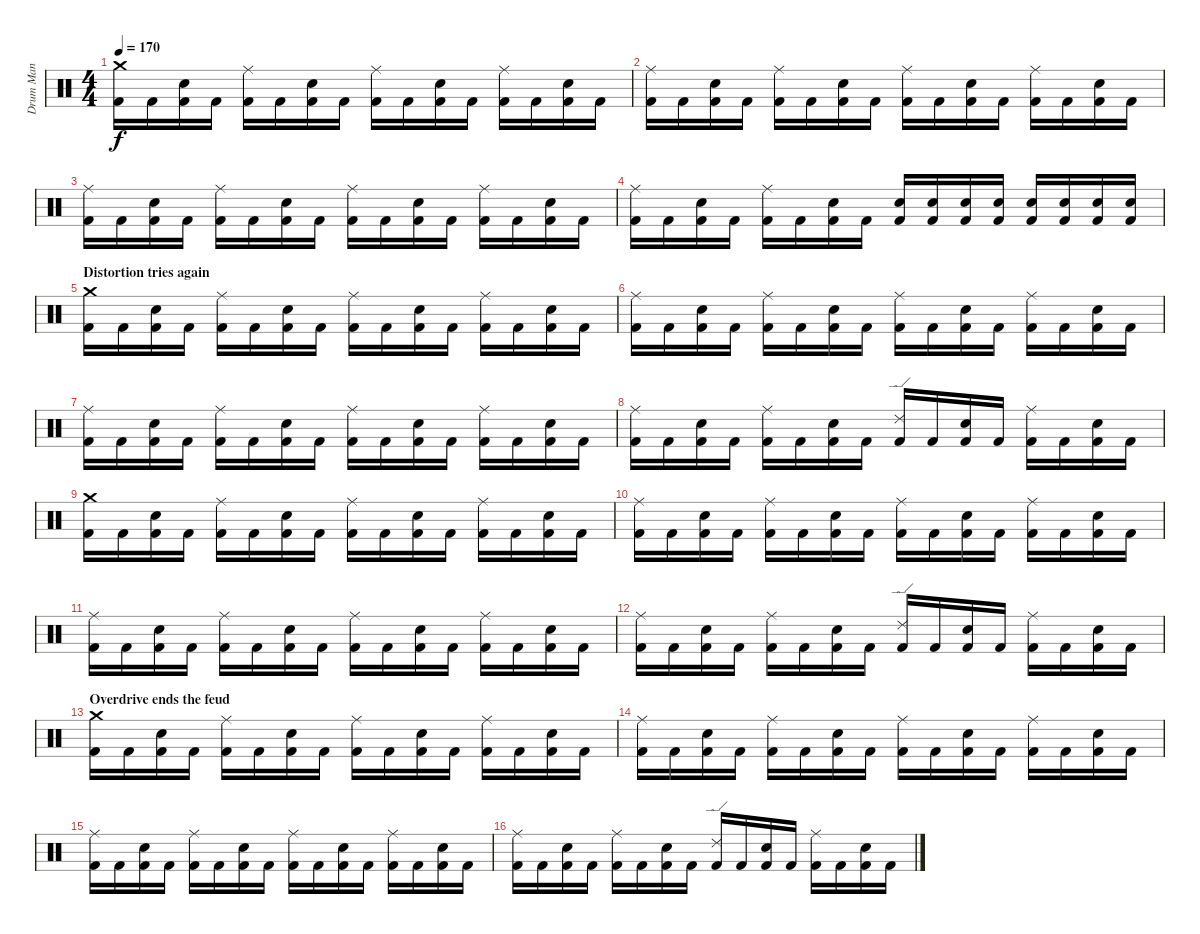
\track ("Drum Man" "Drum Man") {instrument percussion}
\staff {score}
\articulation defaults
\ts (4 4)
\tempo 170
\clef neutral
\ks c
("Crash medium (hit)" "Kick (hit) 2").16{dy f} "Kick (hit) 2".16 ("Snare (hit) 2" "Kick (hit) 2").16 "Kick (hit) 2".16 ("Ride (middle)" "Kick (hit) 2").16 "Kick (hit) 2".16 ("Snare (hit) 2" "Kick (hit) 2").16 "Kick (hit) 2".16 ("Ride (middle)" "Kick (hit) 2").16 "Kick (hit) 2".16 ("Snare (hit) 2" "Kick (hit) 2").16 "Kick (hit) 2".16 ("Ride (middle)" "Kick (hit) 2").16 "Kick (hit) 2".16 ("Snare (hit) 2" "Kick (hit) 2").16 "Kick (hit) 2".16 |
("Ride (middle)" "Kick (hit) 2").16 "Kick (hit) 2".16 ("Snare (hit) 2" "Kick (hit) 2").16 "Kick (hit) 2".16 ("Ride (middle)" "Kick (hit) 2").16 "Kick (hit) 2".16 ("Snare (hit) 2" "Kick (hit) 2").16 "Kick (hit) 2".16 ("Ride (middle)" "Kick (hit) 2").16 "Kick (hit) 2".16 ("Snare (hit) 2" "Kick (hit) 2").16 "Kick (hit) 2".16 ("Ride (middle)" "Kick (hit) 2").16 "Kick (hit) 2".16 ("Snare (hit) 2" "Kick (hit) 2").16 "Kick (hit) 2".16 |
("Ride (middle)" "Kick (hit) 2").16 "Kick (hit) 2".16 ("Snare (hit) 2" "Kick (hit) 2").16 "Kick (hit) 2".16 ("Ride (middle)" "Kick (hit) 2").16 "Kick (hit) 2".16 ("Snare (hit) 2" "Kick (hit) 2").16 "Kick (hit) 2".16 ("Ride (middle)" "Kick (hit) 2").16 "Kick (hit) 2".16 ("Snare (hit) 2" "Kick (hit) 2").16 "Kick (hit) 2".16 ("Ride (middle)" "Kick (hit) 2").16 "Kick (hit) 2".16 ("Snare (hit) 2" "Kick (hit) 2").16 "Kick (hit) 2".16 |
("Ride (middle)" "Kick (hit) 2").16 "Kick (hit) 2".16 ("Snare (hit) 2" "Kick (hit) 2").16 "Kick (hit) 2".16 ("Ride (middle)" "Kick (hit) 2").16 "Kick (hit) 2".16 ("Snare (hit) 2" "Kick (hit) 2").16 "Kick (hit) 2".16 ("Electric Snare (hit)" "Kick (hit) 2").16 ("Electric Snare (hit)" "Kick (hit) 2").16 ("Electric Snare (hit)" "Kick (hit) 2").16 ("Electric Snare (hit)" "Kick (hit) 2").16 ("Electric Snare (hit)" "Kick (hit) 2").16 ("Electric Snare (hit)" "Kick (hit) 2").16 ("Electric Snare (hit)" "Kick (hit) 2").16 ("Electric Snare (hit)" "Kick (hit) 2").16 |
\section ("" "Distortion tries again")
("Crash medium (hit)" "Kick (hit) 2").16 "Kick (hit) 2".16 ("Snare (hit) 2" "Kick (hit) 2").16 "Kick (hit) 2".16 ("Ride (middle)" "Kick (hit) 2").16 "Kick (hit) 2".16 ("Snare (hit) 2" "Kick (hit) 2").16 "Kick (hit) 2".16 ("Ride (middle)" "Kick (hit) 2").16 "Kick (hit) 2".16 ("Snare (hit) 2" "Kick (hit) 2").16 "Kick (hit) 2".16 ("Ride (middle)" "Kick (hit) 2").16 "Kick (hit) 2".16 ("Snare (hit) 2" "Kick (hit) 2").16 "Kick (hit) 2".16 |
("Ride (middle)" "Kick (hit) 2").16 "Kick (hit) 2".16 ("Snare (hit) 2" "Kick (hit) 2").16 "Kick (hit) 2".16 ("Ride (middle)" "Kick (hit) 2").16 "Kick (hit) 2".16 ("Snare (hit) 2" "Kick (hit) 2").16 "Kick (hit) 2".16 ("Ride (middle)" "Kick (hit) 2").16 "Kick (hit) 2".16 ("Snare (hit) 2" "Kick (hit) 2").16 "Kick (hit) 2".16 ("Ride (middle)" "Kick (hit) 2").16 "Kick (hit) 2".16 ("Snare (hit) 2" "Kick (hit) 2").16 "Kick (hit) 2".16 |
("Ride (middle)" "Kick (hit) 2").16 "Kick (hit) 2".16 ("Snare (hit) 2" "Kick (hit) 2").16 "Kick (hit) 2".16 ("Ride (middle)" "Kick (hit) 2").16 "Kick (hit) 2".16 ("Snare (hit) 2" "Kick (hit) 2").16 "Kick (hit) 2".16 ("Ride (middle)" "Kick (hit) 2").16 "Kick (hit) 2".16 ("Snare (hit) 2" "Kick (hit) 2").16 "Kick (hit) 2".16 ("Ride (middle)" "Kick (hit) 2").16 "Kick (hit) 2".16 ("Snare (hit) 2" "Kick (hit) 2").16 "Kick (hit) 2".16 |
("Ride (middle)" "Kick (hit) 2").16 "Kick (hit) 2".16 ("Snare (hit) 2" "Kick (hit) 2").16 "Kick (hit) 2".16 ("Ride (middle)" "Kick (hit) 2").16 "Kick (hit) 2".16 ("Snare (hit) 2" "Kick (hit) 2").16 "Kick (hit) 2".16 ("Ride (edge) 2" "Kick (hit) 2").16 "Kick (hit) 2".16 ("Snare (hit) 2" "Kick (hit) 2").16 "Kick (hit) 2".16 ("Ride (middle)" "Kick (hit) 2").16 "Kick (hit) 2".16 ("Snare (hit) 2" "Kick (hit) 2").16 "Kick (hit) 2".16 |
("Crash medium (hit)" "Kick (hit) 2").16 "Kick (hit) 2".16 ("Snare (hit) 2" "Kick (hit) 2").16 "Kick (hit) 2".16 ("Ride (middle)" "Kick (hit) 2").16 "Kick (hit) 2".16 ("Snare (hit) 2" "Kick (hit) 2").16 "Kick (hit) 2".16 ("Ride (middle)" "Kick (hit) 2").16 "Kick (hit) 2".16 ("Snare (hit) 2" "Kick (hit) 2").16 "Kick (hit) 2".16 ("Ride (middle)" "Kick (hit) 2").16 "Kick (hit) 2".16 ("Snare (hit) 2" "Kick (hit) 2").16 "Kick (hit) 2".16 |
("Ride (middle)" "Kick (hit) 2").16 "Kick (hit) 2".16 ("Snare (hit) 2" "Kick (hit) 2").16 "Kick (hit) 2".16 ("Ride (middle)" "Kick (hit) 2").16 "Kick (hit) 2".16 ("Snare (hit) 2" "Kick (hit) 2").16 "Kick (hit) 2".16 ("Ride (middle)" "Kick (hit) 2").16 "Kick (hit) 2".16 ("Snare (hit) 2" "Kick (hit) 2").16 "Kick (hit) 2".16 ("Ride (middle)" "Kick (hit) 2").16 "Kick (hit) 2".16 ("Snare (hit) 2" "Kick (hit) 2").16 "Kick (hit) 2".16 |
("Ride (middle)" "Kick (hit) 2").16 "Kick (hit) 2".16 ("Snare (hit) 2" "Kick (hit) 2").16 "Kick (hit) 2".16 ("Ride (middle)" "Kick (hit) 2").16 "Kick (hit) 2".16 ("Snare (hit) 2" "Kick (hit) 2").16 "Kick (hit) 2".16 ("Ride (middle)" "Kick (hit) 2").16 "Kick (hit) 2".16 ("Snare (hit) 2" "Kick (hit) 2").16 "Kick (hit) 2".16 ("Ride (middle)" "Kick (hit) 2").16 "Kick (hit) 2".16 ("Snare (hit) 2" "Kick (hit) 2").16 "Kick (hit) 2".16 |
("Ride (middle)" "Kick (hit) 2").16 "Kick (hit) 2".16 ("Snare (hit) 2" "Kick (hit) 2").16 "Kick (hit) 2".16 ("Ride (middle)" "Kick (hit) 2").16 "Kick (hit) 2".16 ("Snare (hit) 2" "Kick (hit) 2").16 "Kick (hit) 2".16 ("Ride (edge) 2" "Kick (hit) 2").16 "Kick (hit) 2".16 ("Snare (hit) 2" "Kick (hit) 2").16 "Kick (hit) 2".16 ("Ride (middle)" "Kick (hit) 2").16 "Kick (hit) 2".16 ("Snare (hit) 2" "Kick (hit) 2").16 "Kick (hit) 2".16 |
\section ("" "Overdrive ends the feud")
("Crash medium (hit)" "Kick (hit) 2").16 "Kick (hit) 2".16 ("Snare (hit) 2" "Kick (hit) 2").16 "Kick (hit) 2".16 ("Ride (middle)" "Kick (hit) 2").16 "Kick (hit) 2".16 ("Snare (hit) 2" "Kick (hit) 2").16 "Kick (hit) 2".16 ("Ride (middle)" "Kick (hit) 2").16 "Kick (hit) 2".16 ("Snare (hit) 2" "Kick (hit) 2").16 "Kick (hit) 2".16 ("Ride (middle)" "Kick (hit) 2").16 "Kick (hit) 2".16 ("Snare (hit) 2" "Kick (hit) 2").16 "Kick (hit) 2".16 |
("Ride (middle)" "Kick (hit) 2").16 "Kick (hit) 2".16 ("Snare (hit) 2" "Kick (hit) 2").16 "Kick (hit) 2".16 ("Ride (middle)" "Kick (hit) 2").16 "Kick (hit) 2".16 ("Snare (hit) 2" "Kick (hit) 2").16 "Kick (hit) 2".16 ("Ride (middle)" "Kick (hit) 2").16 "Kick (hit) 2".16 ("Snare (hit) 2" "Kick (hit) 2").16 "Kick (hit) 2".16 ("Ride (middle)" "Kick (hit) 2").16 "Kick (hit) 2".16 ("Snare (hit) 2" "Kick (hit) 2").16 "Kick (hit) 2".16 |
("Ride (middle)" "Kick (hit) 2").16 "Kick (hit) 2".16 ("Snare (hit) 2" "Kick (hit) 2").16 "Kick (hit) 2".16 ("Ride (middle)" "Kick (hit) 2").16 "Kick (hit) 2".16 ("Snare (hit) 2" "Kick (hit) 2").16 "Kick (hit) 2".16 ("Ride (middle)" "Kick (hit) 2").16 "Kick (hit) 2".16 ("Snare (hit) 2" "Kick (hit) 2").16 "Kick (hit) 2".16 ("Ride (middle)" "Kick (hit) 2").16 "Kick (hit) 2".16 ("Snare (hit) 2" "Kick (hit) 2").16 "Kick (hit) 2".16 |
("Ride (middle)" "Kick (hit) 2").16 "Kick (hit) 2".16 ("Snare (hit) 2" "Kick (hit) 2").16 "Kick (hit) 2".16 ("Ride (middle)" "Kick (hit) 2").16 "Kick (hit) 2".16 ("Snare (hit) 2" "Kick (hit) 2").16 "Kick (hit) 2".16 ("Ride (edge) 2" "Kick (hit) 2").16 "Kick (hit) 2".16 ("Snare (hit) 2" "Kick (hit) 2").16 "Kick (hit) 2".16 ("Ride (middle)" "Kick (hit) 2").16 "Kick (hit) 2".16 ("Snare (hit) 2" "Kick (hit) 2").16 "Kick (hit) 2".16
